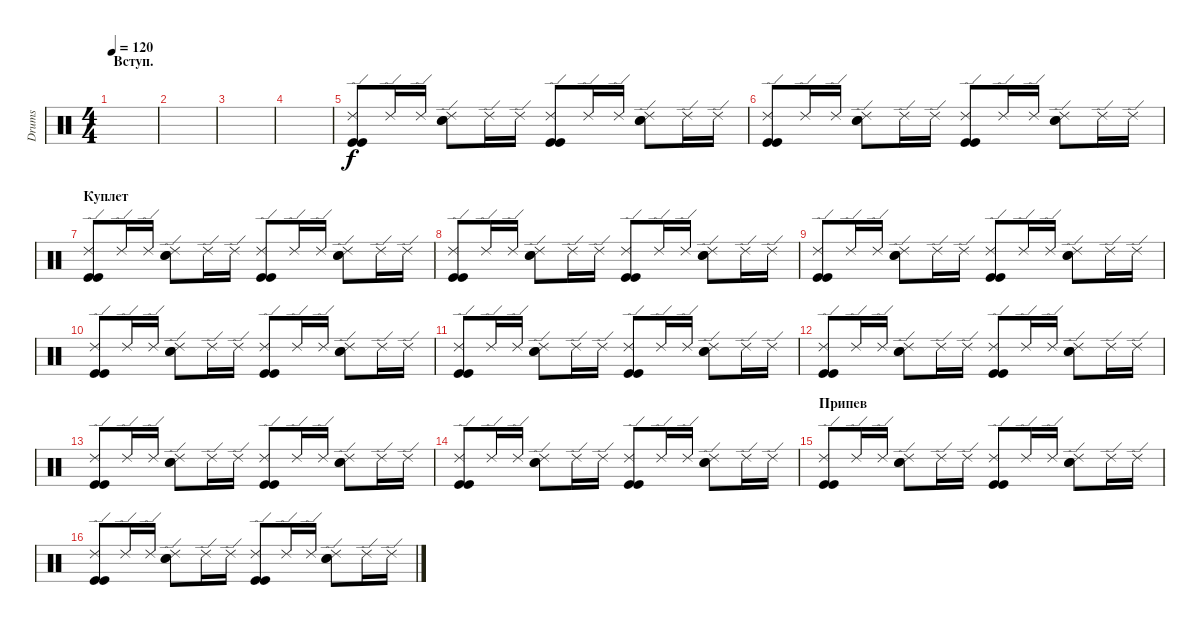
\track ("Drums" "Drums") {instrument percussion}
\staff {score}
\articulation defaults
\ts (4 4)
\section ("" "Вступ.")
\tempo 120
\clef neutral
\ks c
|
|
|
|
("Ride (edge) 2" "Kick (hit)" "Kick (hit)").8 "Ride (edge) 2".16 "Ride (edge) 2".16 ("Ride (edge) 2" "Electric Snare (hit)" "Electric Snare (hit)").8 "Ride (edge) 2".16 "Ride (edge) 2".16 ("Ride (edge) 2" "Kick (hit)" "Kick (hit)").8 "Ride (edge) 2".16 "Ride (edge) 2".16 ("Ride (edge) 2" "Electric Snare (hit)" "Electric Snare (hit)").8 "Ride (edge) 2".16 "Ride (edge) 2".16 |
("Ride (edge) 2" "Kick (hit)" "Kick (hit)").8 "Ride (edge) 2".16 "Ride (edge) 2".16 ("Ride (edge) 2" "Electric Snare (hit)" "Electric Snare (hit)").8 "Ride (edge) 2".16 "Ride (edge) 2".16 ("Ride (edge) 2" "Kick (hit)" "Kick (hit)").8 "Ride (edge) 2".16 "Ride (edge) 2".16 ("Ride (edge) 2" "Electric Snare (hit)" "Electric Snare (hit)").8 "Ride (edge) 2".16 "Ride (edge) 2".16 |
\section ("" "Куплет")
("Ride (edge) 2" "Kick (hit)" "Kick (hit)").8 "Ride (edge) 2".16 "Ride (edge) 2".16 ("Ride (edge) 2" "Electric Snare (hit)" "Electric Snare (hit)").8 "Ride (edge) 2".16 "Ride (edge) 2".16 ("Ride (edge) 2" "Kick (hit)" "Kick (hit)").8 "Ride (edge) 2".16 "Ride (edge) 2".16 ("Ride (edge) 2" "Electric Snare (hit)" "Electric Snare (hit)").8 "Ride (edge) 2".16 "Ride (edge) 2".16 |
("Ride (edge) 2" "Kick (hit)" "Kick (hit)").8 "Ride (edge) 2".16 "Ride (edge) 2".16 ("Ride (edge) 2" "Electric Snare (hit)" "Electric Snare (hit)").8 "Ride (edge) 2".16 "Ride (edge) 2".16 ("Ride (edge) 2" "Kick (hit)" "Kick (hit)").8 "Ride (edge) 2".16 "Ride (edge) 2".16 ("Ride (edge) 2" "Electric Snare (hit)" "Electric Snare (hit)").8 "Ride (edge) 2".16 "Ride (edge) 2".16 |
("Ride (edge) 2" "Kick (hit)" "Kick (hit)").8 "Ride (edge) 2".16 "Ride (edge) 2".16 ("Ride (edge) 2" "Electric Snare (hit)" "Electric Snare (hit)").8 "Ride (edge) 2".16 "Ride (edge) 2".16 ("Ride (edge) 2" "Kick (hit)" "Kick (hit)").8 "Ride (edge) 2".16 "Ride (edge) 2".16 ("Ride (edge) 2" "Electric Snare (hit)" "Electric Snare (hit)").8 "Ride (edge) 2".16 "Ride (edge) 2".16 |
("Ride (edge) 2" "Kick (hit)" "Kick (hit)").8 "Ride (edge) 2".16 "Ride (edge) 2".16 ("Ride (edge) 2" "Electric Snare (hit)" "Electric Snare (hit)").8 "Ride (edge) 2".16 "Ride (edge) 2".16 ("Ride (edge) 2" "Kick (hit)" "Kick (hit)").8 "Ride (edge) 2".16 "Ride (edge) 2".16 ("Ride (edge) 2" "Electric Snare (hit)" "Electric Snare (hit)").8 "Ride (edge) 2".16 "Ride (edge) 2".16 |
("Ride (edge) 2" "Kick (hit)" "Kick (hit)").8 "Ride (edge) 2".16 "Ride (edge) 2".16 ("Ride (edge) 2" "Electric Snare (hit)" "Electric Snare (hit)").8 "Ride (edge) 2".16 "Ride (edge) 2".16 ("Ride (edge) 2" "Kick (hit)" "Kick (hit)").8 "Ride (edge) 2".16 "Ride (edge) 2".16 ("Ride (edge) 2" "Electric Snare (hit)" "Electric Snare (hit)").8 "Ride (edge) 2".16 "Ride (edge) 2".16 |
("Ride (edge) 2" "Kick (hit)" "Kick (hit)").8 "Ride (edge) 2".16 "Ride (edge) 2".16 ("Ride (edge) 2" "Electric Snare (hit)" "Electric Snare (hit)").8 "Ride (edge) 2".16 "Ride (edge) 2".16 ("Ride (edge) 2" "Kick (hit)" "Kick (hit)").8 "Ride (edge) 2".16 "Ride (edge) 2".16 ("Ride (edge) 2" "Electric Snare (hit)" "Electric Snare (hit)").8 "Ride (edge) 2".16 "Ride (edge) 2".16 |
("Ride (edge) 2" "Kick (hit)" "Kick (hit)").8 "Ride (edge) 2".16 "Ride (edge) 2".16 ("Ride (edge) 2" "Electric Snare (hit)" "Electric Snare (hit)").8 "Ride (edge) 2".16 "Ride (edge) 2".16 ("Ride (edge) 2" "Kick (hit)" "Kick (hit)").8 "Ride (edge) 2".16 "Ride (edge) 2".16 ("Ride (edge) 2" "Electric Snare (hit)" "Electric Snare (hit)").8 "Ride (edge) 2".16 "Ride (edge) 2".16 |
("Ride (edge) 2" "Kick (hit)" "Kick (hit)").8 "Ride (edge) 2".16 "Ride (edge) 2".16 ("Ride (edge) 2" "Electric Snare (hit)" "Electric Snare (hit)").8 "Ride (edge) 2".16 "Ride (edge) 2".16 ("Ride (edge) 2" "Kick (hit)" "Kick (hit)").8 "Ride (edge) 2".16 "Ride (edge) 2".16 ("Ride (edge) 2" "Electric Snare (hit)" "Electric Snare (hit)").8 "Ride (edge) 2".16 "Ride (edge) 2".16 |
\section ("" "Припев")
("Ride (edge) 2" "Kick (hit)" "Kick (hit)").8 "Ride (edge) 2".16 "Ride (edge) 2".16 ("Ride (edge) 2" "Electric Snare (hit)" "Electric Snare (hit)").8 "Ride (edge) 2".16 "Ride (edge) 2".16 ("Ride (edge) 2" "Kick (hit)" "Kick (hit)").8 "Ride (edge) 2".16 "Ride (edge) 2".16 ("Ride (edge) 2" "Electric Snare (hit)" "Electric Snare (hit)").8 "Ride (edge) 2".16 "Ride (edge) 2".16 |
("Ride (edge) 2" "Kick (hit)" "Kick (hit)").8 "Ride (edge) 2".16 "Ride (edge) 2".16 ("Ride (edge) 2" "Electric Snare (hit)" "Electric Snare (hit)").8 "Ride (edge) 2".16 "Ride (edge) 2".16 ("Ride (edge) 2" "Kick (hit)" "Kick (hit)").8 "Ride (edge) 2".16 "Ride (edge) 2".16 ("Ride (edge) 2" "Electric Snare (hit)" "Electric Snare (hit)").8 "Ride (edge) 2".16 "Ride (edge) 2".16
